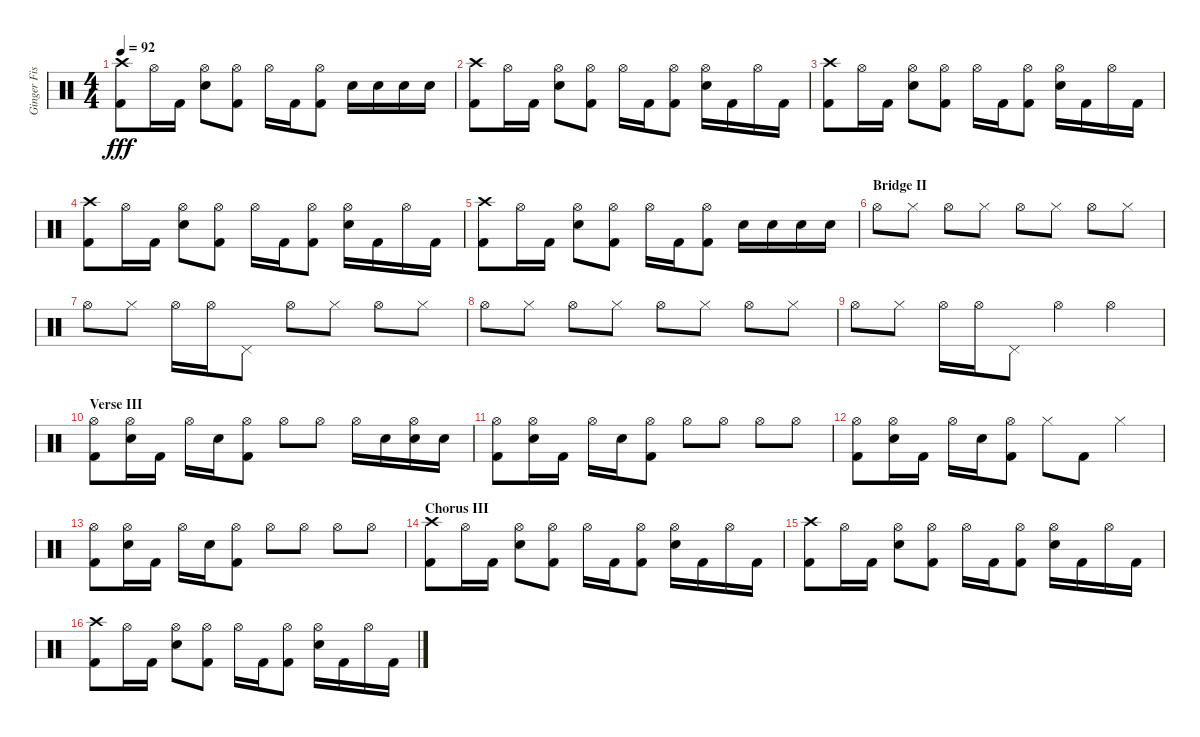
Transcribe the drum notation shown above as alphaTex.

\track ("Ginger Fish" "Ginger Fis") {instrument percussion}
\staff {score}
\articulation defaults
\ts (4 4)
\tempo 92
\clef neutral
\ks c
("Crash high (hit)" "Kick (hit) 2").8{dy fff} "Hi-Hat (open)".16 "Kick (hit) 2".16 ("Hi-Hat (open)" "Electric Snare (hit)").8 ("Hi-Hat (open)" "Kick (hit) 2").8 "Hi-Hat (open)".16 "Kick (hit) 2".16 ("Hi-Hat (open)" "Kick (hit) 2").8 "Electric Snare (hit)".16 "Electric Snare (hit)".16 "Electric Snare (hit)".16 "Electric Snare (hit)".16 |
("Crash high (hit)" "Kick (hit) 2").8 "Hi-Hat (open)".16 "Kick (hit) 2".16 ("Hi-Hat (open)" "Electric Snare (hit)").8 ("Hi-Hat (open)" "Kick (hit) 2").8 "Hi-Hat (open)".16 "Kick (hit) 2".16 ("Hi-Hat (open)" "Kick (hit) 2").8 ("Hi-Hat (open)" "Electric Snare (hit)").16 "Kick (hit) 2".16 "Hi-Hat (open)".16 "Kick (hit) 2".16 |
("Crash high (hit)" "Kick (hit) 2").8 "Hi-Hat (open)".16 "Kick (hit) 2".16 ("Hi-Hat (open)" "Electric Snare (hit)").8 ("Hi-Hat (open)" "Kick (hit) 2").8 "Hi-Hat (open)".16 "Kick (hit) 2".16 ("Hi-Hat (open)" "Kick (hit) 2").8 ("Hi-Hat (open)" "Electric Snare (hit)").16 "Kick (hit) 2".16 "Hi-Hat (open)".16 "Kick (hit) 2".16 |
("Crash high (hit)" "Kick (hit) 2").8 "Hi-Hat (open)".16 "Kick (hit) 2".16 ("Hi-Hat (open)" "Electric Snare (hit)").8 ("Hi-Hat (open)" "Kick (hit) 2").8 "Hi-Hat (open)".16 "Kick (hit) 2".16 ("Hi-Hat (open)" "Kick (hit) 2").8 ("Hi-Hat (open)" "Electric Snare (hit)").16 "Kick (hit) 2".16 "Hi-Hat (open)".16 "Kick (hit) 2".16 |
("Crash high (hit)" "Kick (hit) 2").8 "Hi-Hat (open)".16 "Kick (hit) 2".16 ("Hi-Hat (open)" "Electric Snare (hit)").8 ("Hi-Hat (open)" "Kick (hit) 2").8 "Hi-Hat (open)".16 "Kick (hit) 2".16 ("Hi-Hat (open)" "Kick (hit) 2").8 "Electric Snare (hit)".16 "Electric Snare (hit)".16 "Electric Snare (hit)".16 "Electric Snare (hit)".16 |
\section ("" "Bridge II")
"Hi-Hat (open)".8 "Hi-Hat (closed)".8 "Hi-Hat (open)".8 "Hi-Hat (closed)".8 "Hi-Hat (open)".8 "Hi-Hat (closed)".8 "Hi-Hat (open)".8 "Hi-Hat (closed)".8 |
"Hi-Hat (open)".8 "Hi-Hat (closed)".8 "Hi-Hat (open)".16 "Hi-Hat (open)".16 "Pedal Hi-Hat (hit)".8 "Hi-Hat (open)".8 "Hi-Hat (closed)".8 "Hi-Hat (open)".8 "Hi-Hat (closed)".8 |
"Hi-Hat (open)".8 "Hi-Hat (closed)".8 "Hi-Hat (open)".8 "Hi-Hat (closed)".8 "Hi-Hat (open)".8 "Hi-Hat (closed)".8 "Hi-Hat (open)".8 "Hi-Hat (closed)".8 |
"Hi-Hat (open)".8 "Hi-Hat (closed)".8 "Hi-Hat (open)".16 "Hi-Hat (open)".16 "Pedal Hi-Hat (hit)".8 "Hi-Hat (open)".4 "Hi-Hat (open)".4 |
\section ("" "Verse III")
("Hi-Hat (open)" "Kick (hit) 2").8 ("Hi-Hat (open)" "Electric Snare (hit)").16 "Kick (hit) 2".16 "Hi-Hat (open)".16 "Electric Snare (hit)".16 ("Hi-Hat (open)" "Kick (hit) 2").8 "Hi-Hat (open)".8 "Hi-Hat (open)".8 "Hi-Hat (open)".16 "Electric Snare (hit)".16 ("Hi-Hat (open)" "Electric Snare (hit)").16 "Electric Snare (hit)".16 |
("Hi-Hat (open)" "Kick (hit) 2").8 ("Hi-Hat (open)" "Electric Snare (hit)").16 "Kick (hit) 2".16 "Hi-Hat (open)".16 "Electric Snare (hit)".16 ("Hi-Hat (open)" "Kick (hit) 2").8 "Hi-Hat (open)".8 "Hi-Hat (open)".8 "Hi-Hat (open)".8 "Hi-Hat (open)".8 |
("Hi-Hat (open)" "Kick (hit) 2").8 ("Hi-Hat (open)" "Electric Snare (hit)").16 "Kick (hit) 2".16 "Hi-Hat (open)".16 "Electric Snare (hit)".16 ("Hi-Hat (open)" "Kick (hit) 2").8 "Hi-Hat (closed)".8 "Kick (hit) 2".8 "Hi-Hat (closed)".4 |
("Hi-Hat (open)" "Kick (hit) 2").8 ("Hi-Hat (open)" "Electric Snare (hit)").16 "Kick (hit) 2".16 "Hi-Hat (open)".16 "Electric Snare (hit)".16 ("Hi-Hat (open)" "Kick (hit) 2").8 "Hi-Hat (open)".8 "Hi-Hat (open)".8 "Hi-Hat (open)".8 "Hi-Hat (open)".8 |
\section ("" "Chorus III")
("Crash high (hit)" "Kick (hit) 2").8 "Hi-Hat (open)".16 "Kick (hit) 2".16 ("Hi-Hat (open)" "Electric Snare (hit)").8 ("Hi-Hat (open)" "Kick (hit) 2").8 "Hi-Hat (open)".16 "Kick (hit) 2".16 ("Hi-Hat (open)" "Kick (hit) 2").8 ("Hi-Hat (open)" "Electric Snare (hit)").16 "Kick (hit) 2".16 "Hi-Hat (open)".16 "Kick (hit) 2".16 |
("Crash high (hit)" "Kick (hit) 2").8 "Hi-Hat (open)".16 "Kick (hit) 2".16 ("Hi-Hat (open)" "Electric Snare (hit)").8 ("Hi-Hat (open)" "Kick (hit) 2").8 "Hi-Hat (open)".16 "Kick (hit) 2".16 ("Hi-Hat (open)" "Kick (hit) 2").8 ("Hi-Hat (open)" "Electric Snare (hit)").16 "Kick (hit) 2".16 "Hi-Hat (open)".16 "Kick (hit) 2".16 |
("Crash high (hit)" "Kick (hit) 2").8 "Hi-Hat (open)".16 "Kick (hit) 2".16 ("Hi-Hat (open)" "Electric Snare (hit)").8 ("Hi-Hat (open)" "Kick (hit) 2").8 "Hi-Hat (open)".16 "Kick (hit) 2".16 ("Hi-Hat (open)" "Kick (hit) 2").8 ("Hi-Hat (open)" "Electric Snare (hit)").16 "Kick (hit) 2".16 "Hi-Hat (open)".16 "Kick (hit) 2".16
